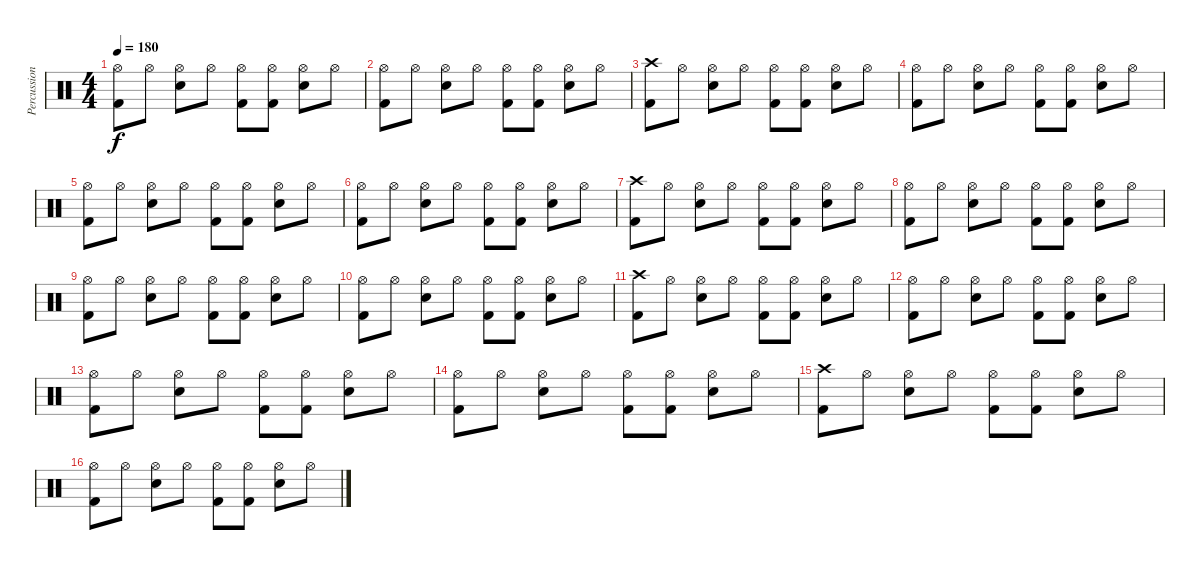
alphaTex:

\track ("Percussion" "Percussion") {instrument percussion}
\staff {score}
\articulation defaults
\ts (4 4)
\tempo 180
\clef neutral
\ks c
("Hi-Hat (open)" "Kick (hit) 2").8{dy f} "Hi-Hat (open)".8 ("Hi-Hat (open)" "Snare (hit) 2").8 "Hi-Hat (open)".8 ("Hi-Hat (open)" "Kick (hit) 2").8 ("Hi-Hat (open)" "Kick (hit) 2").8 ("Hi-Hat (open)" "Snare (hit) 2").8 "Hi-Hat (open)".8 |
("Hi-Hat (open)" "Kick (hit) 2").8 "Hi-Hat (open)".8 ("Hi-Hat (open)" "Snare (hit) 2").8 "Hi-Hat (open)".8 ("Hi-Hat (open)" "Kick (hit) 2").8 ("Hi-Hat (open)" "Kick (hit) 2").8 ("Hi-Hat (open)" "Snare (hit) 2").8 "Hi-Hat (open)".8 |
("Crash high (hit)" "Kick (hit) 2").8 "Hi-Hat (open)".8 ("Hi-Hat (open)" "Snare (hit) 2").8 "Hi-Hat (open)".8 ("Hi-Hat (open)" "Kick (hit) 2").8 ("Hi-Hat (open)" "Kick (hit) 2").8 ("Hi-Hat (open)" "Snare (hit) 2").8 "Hi-Hat (open)".8 |
("Hi-Hat (open)" "Kick (hit) 2").8 "Hi-Hat (open)".8 ("Hi-Hat (open)" "Snare (hit) 2").8 "Hi-Hat (open)".8 ("Hi-Hat (open)" "Kick (hit) 2").8 ("Hi-Hat (open)" "Kick (hit) 2").8 ("Hi-Hat (open)" "Snare (hit) 2").8 "Hi-Hat (open)".8 |
("Hi-Hat (open)" "Kick (hit) 2").8 "Hi-Hat (open)".8 ("Hi-Hat (open)" "Snare (hit) 2").8 "Hi-Hat (open)".8 ("Hi-Hat (open)" "Kick (hit) 2").8 ("Hi-Hat (open)" "Kick (hit) 2").8 ("Hi-Hat (open)" "Snare (hit) 2").8 "Hi-Hat (open)".8 |
("Hi-Hat (open)" "Kick (hit) 2").8 "Hi-Hat (open)".8 ("Hi-Hat (open)" "Snare (hit) 2").8 "Hi-Hat (open)".8 ("Hi-Hat (open)" "Kick (hit) 2").8 ("Hi-Hat (open)" "Kick (hit) 2").8 ("Hi-Hat (open)" "Snare (hit) 2").8 "Hi-Hat (open)".8 |
("Crash high (hit)" "Kick (hit) 2").8 "Hi-Hat (open)".8 ("Hi-Hat (open)" "Snare (hit) 2").8 "Hi-Hat (open)".8 ("Hi-Hat (open)" "Kick (hit) 2").8 ("Hi-Hat (open)" "Kick (hit) 2").8 ("Hi-Hat (open)" "Snare (hit) 2").8 "Hi-Hat (open)".8 |
("Hi-Hat (open)" "Kick (hit) 2").8 "Hi-Hat (open)".8 ("Hi-Hat (open)" "Snare (hit) 2").8 "Hi-Hat (open)".8 ("Hi-Hat (open)" "Kick (hit) 2").8 ("Hi-Hat (open)" "Kick (hit) 2").8 ("Hi-Hat (open)" "Snare (hit) 2").8 "Hi-Hat (open)".8 |
("Hi-Hat (open)" "Kick (hit) 2").8 "Hi-Hat (open)".8 ("Hi-Hat (open)" "Snare (hit) 2").8 "Hi-Hat (open)".8 ("Hi-Hat (open)" "Kick (hit) 2").8 ("Hi-Hat (open)" "Kick (hit) 2").8 ("Hi-Hat (open)" "Snare (hit) 2").8 "Hi-Hat (open)".8 |
("Hi-Hat (open)" "Kick (hit) 2").8 "Hi-Hat (open)".8 ("Hi-Hat (open)" "Snare (hit) 2").8 "Hi-Hat (open)".8 ("Hi-Hat (open)" "Kick (hit) 2").8 ("Hi-Hat (open)" "Kick (hit) 2").8 ("Hi-Hat (open)" "Snare (hit) 2").8 "Hi-Hat (open)".8 |
("Crash high (hit)" "Kick (hit) 2").8 "Hi-Hat (open)".8 ("Hi-Hat (open)" "Snare (hit) 2").8 "Hi-Hat (open)".8 ("Hi-Hat (open)" "Kick (hit) 2").8 ("Hi-Hat (open)" "Kick (hit) 2").8 ("Hi-Hat (open)" "Snare (hit) 2").8 "Hi-Hat (open)".8 |
("Hi-Hat (open)" "Kick (hit) 2").8 "Hi-Hat (open)".8 ("Hi-Hat (open)" "Snare (hit) 2").8 "Hi-Hat (open)".8 ("Hi-Hat (open)" "Kick (hit) 2").8 ("Hi-Hat (open)" "Kick (hit) 2").8 ("Hi-Hat (open)" "Snare (hit) 2").8 "Hi-Hat (open)".8 |
("Hi-Hat (open)" "Kick (hit) 2").8 "Hi-Hat (open)".8 ("Hi-Hat (open)" "Snare (hit) 2").8 "Hi-Hat (open)".8 ("Hi-Hat (open)" "Kick (hit) 2").8 ("Hi-Hat (open)" "Kick (hit) 2").8 ("Hi-Hat (open)" "Snare (hit) 2").8 "Hi-Hat (open)".8 |
("Hi-Hat (open)" "Kick (hit) 2").8 "Hi-Hat (open)".8 ("Hi-Hat (open)" "Snare (hit) 2").8 "Hi-Hat (open)".8 ("Hi-Hat (open)" "Kick (hit) 2").8 ("Hi-Hat (open)" "Kick (hit) 2").8 ("Hi-Hat (open)" "Snare (hit) 2").8 "Hi-Hat (open)".8 |
("Crash high (hit)" "Kick (hit) 2").8 "Hi-Hat (open)".8 ("Hi-Hat (open)" "Snare (hit) 2").8 "Hi-Hat (open)".8 ("Hi-Hat (open)" "Kick (hit) 2").8 ("Hi-Hat (open)" "Kick (hit) 2").8 ("Hi-Hat (open)" "Snare (hit) 2").8 "Hi-Hat (open)".8 |
("Hi-Hat (open)" "Kick (hit) 2").8 "Hi-Hat (open)".8 ("Hi-Hat (open)" "Snare (hit) 2").8 "Hi-Hat (open)".8 ("Hi-Hat (open)" "Kick (hit) 2").8 ("Hi-Hat (open)" "Kick (hit) 2").8 ("Hi-Hat (open)" "Snare (hit) 2").8 "Hi-Hat (open)".8
